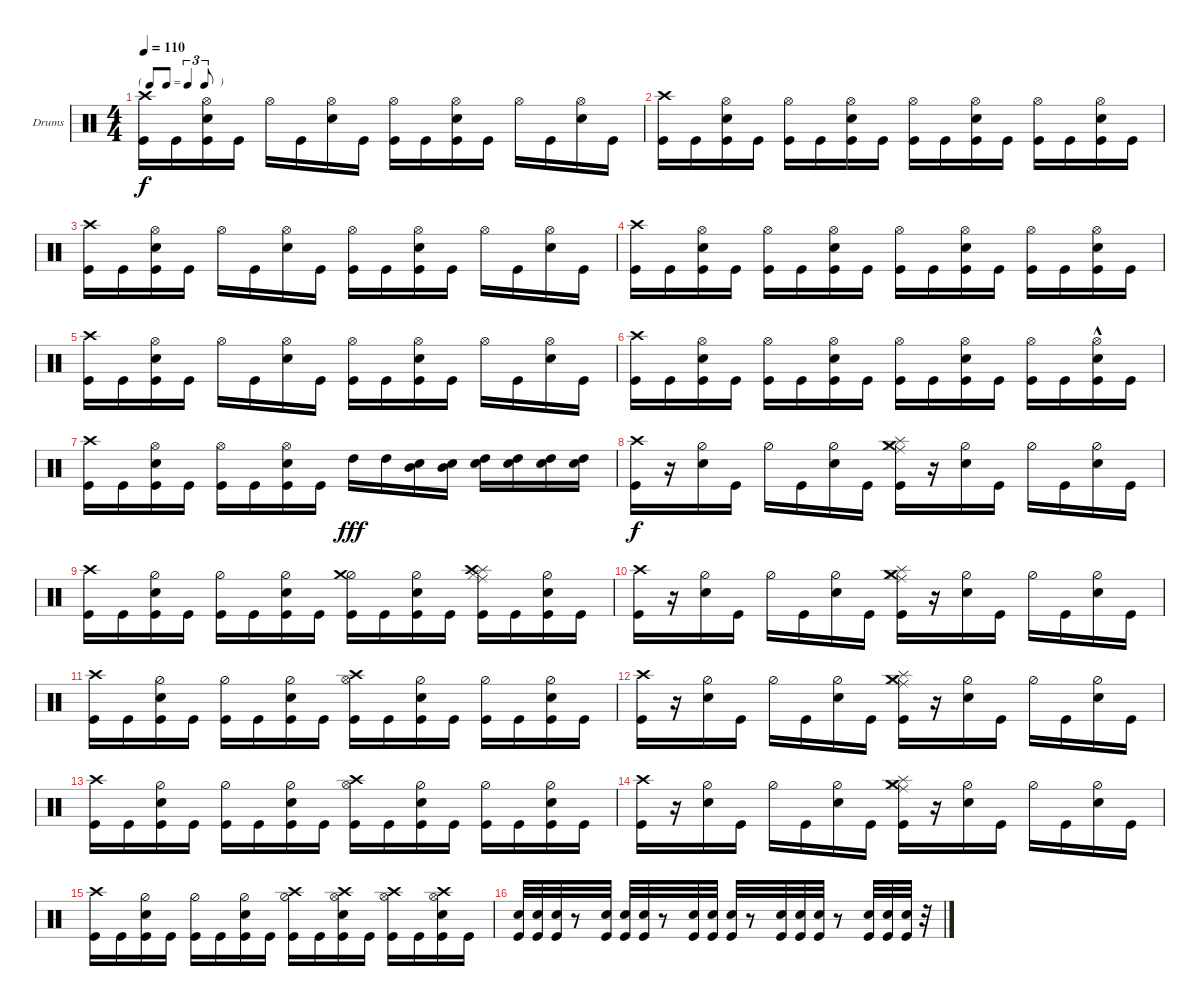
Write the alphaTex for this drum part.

\bracketExtendMode groupsimilarinstruments
\firstSystemTrackNameOrientation horizontal
\otherSystemsTrackNameOrientation horizontal
\track ("Drumkit" "Drums") {instrument percussion}
\staff {score}
\articulation defaults
\ts (4 4)
\tf triplet8th
\tempo 110
\clef neutral
\ks c
("Crash high (hit)" "Kick (hit)").16{dy f} "Kick (hit)".16 ("Hi-Hat (open)" "Snare (hit) 2" "Kick (hit)").16 "Kick (hit)".16 "Hi-Hat (open)".16 "Kick (hit)".16 ("Hi-Hat (open)" "Snare (hit) 2").16 "Kick (hit)".16 ("Hi-Hat (open)" "Kick (hit)").16 "Kick (hit)".16 ("Hi-Hat (open)" "Snare (hit) 2" "Kick (hit)").16 "Kick (hit)".16 "Hi-Hat (open)".16 "Kick (hit)".16 ("Hi-Hat (open)" "Snare (hit) 2").16 "Kick (hit)".16 |
("Crash high (hit)" "Kick (hit)").16 "Kick (hit)".16 ("Hi-Hat (open)" "Snare (hit) 2" "Kick (hit)").16 "Kick (hit)".16 ("Hi-Hat (open)" "Kick (hit)").16 "Kick (hit)".16 ("Hi-Hat (open)" "Snare (hit) 2" "Kick (hit)").16 "Kick (hit)".16 ("Hi-Hat (open)" "Kick (hit)").16 "Kick (hit)".16 ("Hi-Hat (open)" "Snare (hit) 2" "Kick (hit)").16 "Kick (hit)".16 ("Hi-Hat (open)" "Kick (hit)").16 "Kick (hit)".16 ("Hi-Hat (open)" "Snare (hit) 2" "Kick (hit)").16 "Kick (hit)".16 |
("Crash high (hit)" "Kick (hit)").16 "Kick (hit)".16 ("Hi-Hat (open)" "Snare (hit) 2" "Kick (hit)").16 "Kick (hit)".16 "Hi-Hat (open)".16 "Kick (hit)".16 ("Hi-Hat (open)" "Snare (hit) 2").16 "Kick (hit)".16 ("Hi-Hat (open)" "Kick (hit)").16 "Kick (hit)".16 ("Hi-Hat (open)" "Snare (hit) 2" "Kick (hit)").16 "Kick (hit)".16 "Hi-Hat (open)".16 "Kick (hit)".16 ("Hi-Hat (open)" "Snare (hit) 2").16 "Kick (hit)".16 |
("Crash high (hit)" "Kick (hit)").16 "Kick (hit)".16 ("Hi-Hat (open)" "Snare (hit) 2" "Kick (hit)").16 "Kick (hit)".16 ("Hi-Hat (open)" "Kick (hit)").16 "Kick (hit)".16 ("Hi-Hat (open)" "Snare (hit) 2" "Kick (hit)").16 "Kick (hit)".16 ("Hi-Hat (open)" "Kick (hit)").16 "Kick (hit)".16 ("Hi-Hat (open)" "Snare (hit) 2" "Kick (hit)").16 "Kick (hit)".16 ("Hi-Hat (open)" "Kick (hit)").16 "Kick (hit)".16 ("Hi-Hat (open)" "Snare (hit) 2" "Kick (hit)").16 "Kick (hit)".16 |
("Crash high (hit)" "Kick (hit)").16 "Kick (hit)".16 ("Hi-Hat (open)" "Snare (hit) 2" "Kick (hit)").16 "Kick (hit)".16 "Hi-Hat (open)".16 "Kick (hit)".16 ("Hi-Hat (open)" "Snare (hit) 2").16 "Kick (hit)".16 ("Hi-Hat (open)" "Kick (hit)").16 "Kick (hit)".16 ("Hi-Hat (open)" "Snare (hit) 2" "Kick (hit)").16 "Kick (hit)".16 "Hi-Hat (open)".16 "Kick (hit)".16 ("Hi-Hat (open)" "Snare (hit) 2").16 "Kick (hit)".16 |
("Crash high (hit)" "Kick (hit)").16 "Kick (hit)".16 ("Hi-Hat (open)" "Snare (hit) 2" "Kick (hit)").16 "Kick (hit)".16 ("Hi-Hat (open)" "Kick (hit)").16 "Kick (hit)".16 ("Hi-Hat (open)" "Snare (hit) 2" "Kick (hit)").16 "Kick (hit)".16 ("Hi-Hat (open)" "Kick (hit)").16 "Kick (hit)".16 ("Hi-Hat (open)" "Snare (hit) 2" "Kick (hit)").16 "Kick (hit)".16 ("Hi-Hat (open)" "Kick (hit)").16 "Kick (hit)".16 ("Hi-Hat (open)"{hac} "Snare (hit) 2" "Kick (hit)").16 "Kick (hit)".16 |
("Crash high (hit)" "Kick (hit)").16 "Kick (hit)".16 ("Hi-Hat (open)" "Snare (hit) 2" "Kick (hit)").16 "Kick (hit)".16 ("Hi-Hat (open)" "Kick (hit)").16 "Kick (hit)".16 ("Hi-Hat (open)" "Snare (hit) 2" "Kick (hit)").16 "Kick (hit)".16 "High Tom (hit)".16{dy fff} "High Tom (hit)".16 ("Mid Tom (hit)" "Snare (hit) 2").16 ("Mid Tom (hit)" "Snare (hit) 2").16 ("High Tom (hit)" "Snare (hit) 2").16 ("High Tom (hit)" "Snare (hit) 2").16 ("High Tom (hit)" "Snare (hit) 2").16 ("High Tom (hit)" "Snare (hit) 2").16 |
("Crash high (hit)" "Kick (hit)").16{dy f} r.16 ("Hi-Hat (half)" "Snare (hit) 2").16 "Kick (hit)".16 "Hi-Hat (half)".16 "Kick (hit)".16 ("Hi-Hat (half)" "Snare (hit) 2").16 "Kick (hit)".16 ("Hi-Hat (closed)" "Kick (hit)" "Splash (hit)" "Ride (middle)" "Crash medium (hit)").16 r.16 ("Hi-Hat (half)" "Snare (hit) 2").16 "Kick (hit)".16 "Hi-Hat (half)".16 "Kick (hit)".16 ("Hi-Hat (half)" "Snare (hit) 2").16 "Kick (hit)".16 |
("Crash high (hit)" "Kick (hit)").16 "Kick (hit)".16 ("Hi-Hat (half)" "Snare (hit) 2" "Kick (hit)").16 "Kick (hit)".16 ("Hi-Hat (half)" "Kick (hit)").16 "Kick (hit)".16 ("Hi-Hat (half)" "Snare (hit) 2" "Kick (hit)").16 "Kick (hit)".16 ("Hi-Hat (half)" "Kick (hit)" "Crash medium (hit)").16 "Kick (hit)".16 ("Hi-Hat (half)" "Snare (hit) 2" "Kick (hit)").16 "Kick (hit)".16 ("Hi-Hat (closed)" "Kick (hit)" "Ride (middle)" "Splash (hit)" "Crash high (hit)").16 "Kick (hit)".16 ("Hi-Hat (half)" "Snare (hit) 2" "Kick (hit)").16 "Kick (hit)".16 |
("Crash high (hit)" "Kick (hit)").16 r.16 ("Hi-Hat (half)" "Snare (hit) 2").16 "Kick (hit)".16 "Hi-Hat (half)".16 "Kick (hit)".16 ("Hi-Hat (half)" "Snare (hit) 2").16 "Kick (hit)".16 ("Hi-Hat (closed)" "Kick (hit)" "Splash (hit)" "Ride (middle)" "Crash medium (hit)").16 r.16 ("Hi-Hat (half)" "Snare (hit) 2").16 "Kick (hit)".16 "Hi-Hat (half)".16 "Kick (hit)".16 ("Hi-Hat (half)" "Snare (hit) 2").16 "Kick (hit)".16 |
("Crash high (hit)" "Kick (hit)").16 "Kick (hit)".16 ("Hi-Hat (half)" "Snare (hit) 2" "Kick (hit)").16 "Kick (hit)".16 ("Hi-Hat (half)" "Kick (hit)").16 "Kick (hit)".16 ("Hi-Hat (half)" "Snare (hit) 2" "Kick (hit)").16 "Kick (hit)".16 ("Hi-Hat (open)" "Kick (hit)" "Crash high (hit)").16 "Kick (hit)".16 ("Hi-Hat (half)" "Snare (hit) 2" "Kick (hit)").16 "Kick (hit)".16 ("Hi-Hat (half)" "Kick (hit)").16 "Kick (hit)".16 ("Hi-Hat (half)" "Snare (hit) 2" "Kick (hit)").16 "Kick (hit)".16 |
("Crash high (hit)" "Kick (hit)").16 r.16 ("Hi-Hat (half)" "Snare (hit) 2").16 "Kick (hit)".16 "Hi-Hat (half)".16 "Kick (hit)".16 ("Hi-Hat (half)" "Snare (hit) 2").16 "Kick (hit)".16 ("Hi-Hat (closed)" "Kick (hit)" "Splash (hit)" "Ride (middle)" "Crash medium (hit)").16 r.16 ("Hi-Hat (half)" "Snare (hit) 2").16 "Kick (hit)".16 "Hi-Hat (half)".16 "Kick (hit)".16 ("Hi-Hat (half)" "Snare (hit) 2").16 "Kick (hit)".16 |
("Crash high (hit)" "Kick (hit)").16 "Kick (hit)".16 ("Hi-Hat (half)" "Snare (hit) 2" "Kick (hit)").16 "Kick (hit)".16 ("Hi-Hat (half)" "Kick (hit)").16 "Kick (hit)".16 ("Hi-Hat (half)" "Snare (hit) 2" "Kick (hit)").16 "Kick (hit)".16 ("Hi-Hat (open)" "Kick (hit)" "Crash high (hit)").16 "Kick (hit)".16 ("Hi-Hat (half)" "Snare (hit) 2" "Kick (hit)").16 "Kick (hit)".16 ("Hi-Hat (half)" "Kick (hit)").16 "Kick (hit)".16 ("Hi-Hat (half)" "Snare (hit) 2" "Kick (hit)").16 "Kick (hit)".16 |
("Crash high (hit)" "Kick (hit)").16 r.16 ("Hi-Hat (half)" "Snare (hit) 2").16 "Kick (hit)".16 "Hi-Hat (half)".16 "Kick (hit)".16 ("Hi-Hat (half)" "Snare (hit) 2").16 "Kick (hit)".16 ("Hi-Hat (closed)" "Kick (hit)" "Splash (hit)" "Ride (middle)" "Crash medium (hit)").16 r.16 ("Hi-Hat (half)" "Snare (hit) 2").16 "Kick (hit)".16 "Hi-Hat (half)".16 "Kick (hit)".16 ("Hi-Hat (half)" "Snare (hit) 2").16 "Kick (hit)".16 |
("Crash high (hit)" "Kick (hit)").16 "Kick (hit)".16 ("Hi-Hat (half)" "Snare (hit) 2" "Kick (hit)").16 "Kick (hit)".16 ("Hi-Hat (half)" "Kick (hit)").16 "Kick (hit)".16 ("Hi-Hat (half)" "Snare (hit) 2" "Kick (hit)").16 "Kick (hit)".16 ("Hi-Hat (half)" "Kick (hit)" "Crash high (hit)").16 "Kick (hit)".16 ("Hi-Hat (open)" "Snare (hit) 2" "Kick (hit)" "Crash high (hit)").16 "Kick (hit)".16 ("Hi-Hat (open)" "Kick (hit)" "Crash high (hit)").16 "Kick (hit)".16 ("Hi-Hat (open)" "Snare (hit) 2" "Kick (hit)" "Crash high (hit)").16 "Kick (hit)".16 |
("Snare (hit) 2" "Kick (hit)").32 ("Snare (hit) 2" "Kick (hit)").32 ("Snare (hit) 2" "Kick (hit)").32 r.8 ("Snare (hit) 2" "Kick (hit)").32 ("Snare (hit) 2" "Kick (hit)").32 ("Snare (hit) 2" "Kick (hit)").32 r.8 ("Snare (hit) 2" "Kick (hit)").32 ("Snare (hit) 2" "Kick (hit)").32 ("Snare (hit) 2" "Kick (hit)").32 r.8 ("Snare (hit) 2" "Kick (hit)").32 ("Snare (hit) 2" "Kick (hit)").32 ("Snare (hit) 2" "Kick (hit)").32 r.8 ("Snare (hit) 2" "Kick (hit)").32 ("Snare (hit) 2" "Kick (hit)").32 ("Snare (hit) 2" "Kick (hit)").32 r.32
